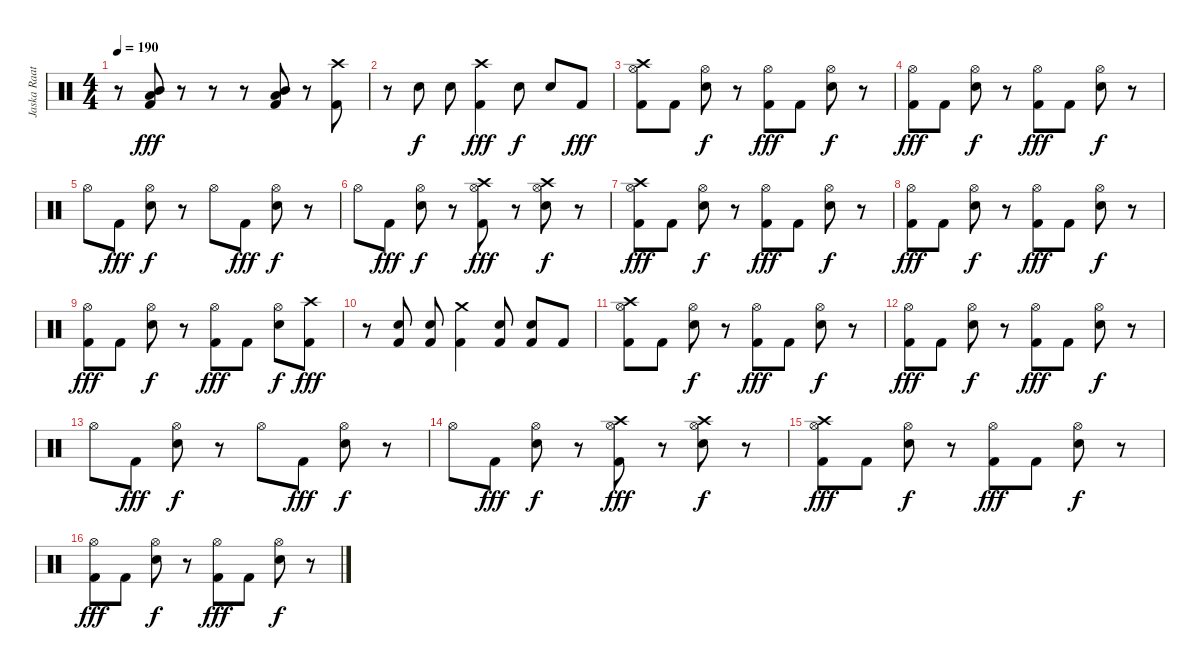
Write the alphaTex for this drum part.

\track ("Jaska Raatikainen (Drums)" "Jaska Raat") {instrument percussion}
\staff {score}
\articulation defaults
\ts (4 4)
\tempo 190
\clef neutral
\ks c
r.8{dy fff} ("Mid Tom (hit)" "Low Tom (hit)" "Kick (hit) 2").8 r.8 r.8 r.8 ("Mid Tom (hit)" "Low Tom (hit)" "Kick (hit) 2").8 r.8 ("Crash high (hit)" "Kick (hit) 2").8 |
r.8 "Electric Snare (hit)".8{dy f} "Electric Snare (hit)".8 ("Crash high (hit)" "Kick (hit) 2").4{dy fff} "Electric Snare (hit)".8{dy f} "Electric Snare (hit)".8 "Kick (hit) 2".8{dy fff} |
("Hi-Hat (open)" "Crash high (hit)" "Kick (hit) 2").8 "Kick (hit) 2".8 ("Hi-Hat (open)" "Electric Snare (hit)").8{dy f} r.8 ("Hi-Hat (open)" "Kick (hit) 2").8{dy fff} "Kick (hit) 2".8 ("Hi-Hat (open)" "Electric Snare (hit)").8{dy f} r.8 |
("Hi-Hat (open)" "Kick (hit) 2").8{dy fff} "Kick (hit) 2".8 ("Hi-Hat (open)" "Electric Snare (hit)").8{dy f} r.8 ("Hi-Hat (open)" "Kick (hit) 2").8{dy fff} "Kick (hit) 2".8 ("Hi-Hat (open)" "Electric Snare (hit)").8{dy f} r.8 |
"Hi-Hat (open)".8 "Kick (hit) 2".8{dy fff} ("Hi-Hat (open)" "Electric Snare (hit)").8{dy f} r.8 "Hi-Hat (open)".8 "Kick (hit) 2".8{dy fff} ("Hi-Hat (open)" "Electric Snare (hit)").8{dy f} r.8 |
"Hi-Hat (open)".8 "Kick (hit) 2".8{dy fff} ("Hi-Hat (open)" "Electric Snare (hit)").8{dy f} r.8 ("Hi-Hat (open)" "Crash high (hit)" "Kick (hit) 2").8{dy fff} r.8 ("Hi-Hat (open)" "Crash high (hit)" "Electric Snare (hit)").8{dy f} r.8 |
("Hi-Hat (open)" "Crash high (hit)" "Kick (hit) 2").8{dy fff} "Kick (hit) 2".8 ("Hi-Hat (open)" "Electric Snare (hit)").8{dy f} r.8 ("Hi-Hat (open)" "Kick (hit) 2").8{dy fff} "Kick (hit) 2".8 ("Hi-Hat (open)" "Electric Snare (hit)").8{dy f} r.8 |
("Hi-Hat (open)" "Kick (hit) 2").8{dy fff} "Kick (hit) 2".8 ("Hi-Hat (open)" "Electric Snare (hit)").8{dy f} r.8 ("Hi-Hat (open)" "Kick (hit) 2").8{dy fff} "Kick (hit) 2".8 ("Hi-Hat (open)" "Electric Snare (hit)").8{dy f} r.8 |
("Hi-Hat (open)" "Kick (hit) 2").8{dy fff} "Kick (hit) 2".8 ("Hi-Hat (open)" "Electric Snare (hit)").8{dy f} r.8 ("Hi-Hat (open)" "Kick (hit) 2").8{dy fff} "Kick (hit) 2".8 ("Hi-Hat (open)" "Electric Snare (hit)").8{dy f} ("Crash high (hit)" "Kick (hit) 2").8{dy fff} |
r.8 ("Electric Snare (hit)" "Kick (hit) 2").8 ("Electric Snare (hit)" "Kick (hit) 2").8 ("Crash medium (hit)" "Kick (hit) 2").4 ("Electric Snare (hit)" "Kick (hit) 2").8 ("Electric Snare (hit)" "Kick (hit) 2").8 "Kick (hit) 2".8 |
("Hi-Hat (open)" "Crash high (hit)" "Kick (hit) 2").8 "Kick (hit) 2".8 ("Hi-Hat (open)" "Electric Snare (hit)").8{dy f} r.8 ("Hi-Hat (open)" "Kick (hit) 2").8{dy fff} "Kick (hit) 2".8 ("Hi-Hat (open)" "Electric Snare (hit)").8{dy f} r.8 |
("Hi-Hat (open)" "Kick (hit) 2").8{dy fff} "Kick (hit) 2".8 ("Hi-Hat (open)" "Electric Snare (hit)").8{dy f} r.8 ("Hi-Hat (open)" "Kick (hit) 2").8{dy fff} "Kick (hit) 2".8 ("Hi-Hat (open)" "Electric Snare (hit)").8{dy f} r.8 |
"Hi-Hat (open)".8 "Kick (hit) 2".8{dy fff} ("Hi-Hat (open)" "Electric Snare (hit)").8{dy f} r.8 "Hi-Hat (open)".8 "Kick (hit) 2".8{dy fff} ("Hi-Hat (open)" "Electric Snare (hit)").8{dy f} r.8 |
"Hi-Hat (open)".8 "Kick (hit) 2".8{dy fff} ("Hi-Hat (open)" "Electric Snare (hit)").8{dy f} r.8 ("Hi-Hat (open)" "Crash high (hit)" "Kick (hit) 2").8{dy fff} r.8 ("Hi-Hat (open)" "Crash high (hit)" "Electric Snare (hit)").8{dy f} r.8 |
("Hi-Hat (open)" "Crash high (hit)" "Kick (hit) 2").8{dy fff} "Kick (hit) 2".8 ("Hi-Hat (open)" "Electric Snare (hit)").8{dy f} r.8 ("Hi-Hat (open)" "Kick (hit) 2").8{dy fff} "Kick (hit) 2".8 ("Hi-Hat (open)" "Electric Snare (hit)").8{dy f} r.8 |
("Hi-Hat (open)" "Kick (hit) 2").8{dy fff} "Kick (hit) 2".8 ("Hi-Hat (open)" "Electric Snare (hit)").8{dy f} r.8 ("Hi-Hat (open)" "Kick (hit) 2").8{dy fff} "Kick (hit) 2".8 ("Hi-Hat (open)" "Electric Snare (hit)").8{dy f} r.8
